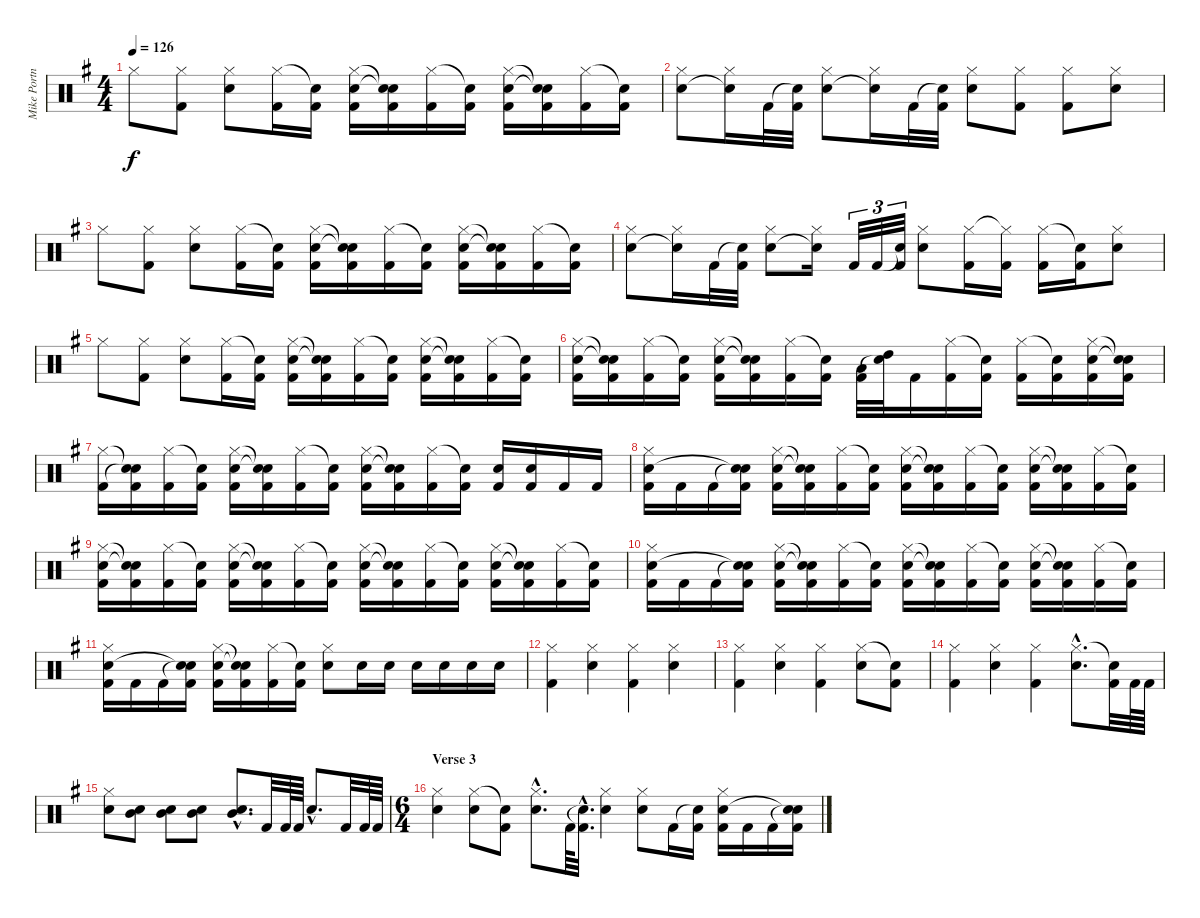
\track ("Mike Portnoy" "Mike Portn") {instrument percussion}
\staff {score}
\articulation defaults
\ts (4 4)
\tempo 126
\clef neutral
\ks g "Hi-Hat (closed)".8{dy f}
("Hi-Hat (closed)" "Kick (hit) 2").8 ("Hi-Hat (closed)" "Snare (hit) 2").8 ("Hi-Hat (closed)" "Kick (hit) 2").16 ("Snare (hit)"{t} "Kick (hit) 2").16 ("Hi-Hat (closed)" "Snare (hit) 2" "Kick (hit) 2").16 ("Snare (hit)"{t} "Snare (hit)"{t} "Kick (hit) 2").16 ("Hi-Hat (closed)" "Kick (hit) 2").16 ("Snare (hit)"{t} "Kick (hit) 2").16 ("Hi-Hat (closed)" "Snare (hit) 2" "Kick (hit) 2").16 ("Snare (hit)"{t} "Snare (hit)"{t} "Kick (hit) 2").16 ("Hi-Hat (closed)" "Kick (hit) 2").16 ("Snare (hit)"{t} "Kick (hit) 2").16 |
("Hi-Hat (closed)" "Snare (hit) 2").8 ("Hi-Hat (closed)" "Snare (hit)"{t}).16 "Kick (hit) 2".32 ("Snare (hit)"{t} "Kick (hit) 2").32 ("Hi-Hat (closed)" "Snare (hit) 2").8 ("Hi-Hat (closed)" "Snare (hit)"{t}).16 "Kick (hit) 2".32 ("Snare (hit)"{t} "Kick (hit) 2").32 ("Hi-Hat (closed)" "Snare (hit) 2").8 ("Hi-Hat (closed)" "Kick (hit) 2").8 ("Hi-Hat (closed)" "Kick (hit) 2").8 ("Hi-Hat (closed)" "Snare (hit) 2").8 |
"Hi-Hat (closed)".8 ("Hi-Hat (closed)" "Kick (hit) 2").8 ("Hi-Hat (closed)" "Snare (hit) 2").8 ("Hi-Hat (closed)" "Kick (hit) 2").16 ("Snare (hit)"{t} "Kick (hit) 2").16 ("Hi-Hat (closed)" "Snare (hit) 2" "Kick (hit) 2").16 ("Snare (hit)"{t} "Snare (hit)"{t} "Kick (hit) 2").16 ("Hi-Hat (closed)" "Kick (hit) 2").16 ("Snare (hit)"{t} "Kick (hit) 2").16 ("Hi-Hat (closed)" "Snare (hit) 2" "Kick (hit) 2").16 ("Snare (hit)"{t} "Snare (hit)"{t} "Kick (hit) 2").16 ("Hi-Hat (closed)" "Kick (hit) 2").16 ("Snare (hit)"{t} "Kick (hit) 2").16 |
("Hi-Hat (closed)" "Snare (hit) 2").8 ("Hi-Hat (closed)" "Snare (hit)"{t}).16 "Kick (hit) 2".32 ("Snare (hit)"{t} "Kick (hit) 2").32 ("Hi-Hat (closed)" "Snare (hit) 2").8 ("Hi-Hat (closed)" "Snare (hit)"{t}).16 "Kick (hit) 2".32{tu (3 2)} "Kick (hit) 2".32{tu (3 2)} ("Snare (hit)"{t} "Kick (hit) 2").32{tu (3 2)} ("Hi-Hat (closed)" "Snare (hit) 2").8 ("Hi-Hat (closed)" "Kick (hit) 2").16 ("Hi-Hat (closed)"{t} "Kick (hit) 2").16 ("Hi-Hat (closed)" "Kick (hit) 2").16 ("Snare (hit)"{t} "Kick (hit) 2").16 ("Hi-Hat (closed)" "Snare (hit) 2").8 |
"Hi-Hat (closed)".8 ("Hi-Hat (closed)" "Kick (hit) 2").8 ("Hi-Hat (closed)" "Snare (hit) 2").8 ("Hi-Hat (closed)" "Kick (hit) 2").16 ("Snare (hit)"{t} "Kick (hit) 2").16 ("Hi-Hat (closed)" "Snare (hit) 2" "Kick (hit) 2").16 ("Snare (hit)"{t} "Snare (hit)"{t} "Kick (hit) 2").16 ("Hi-Hat (closed)" "Kick (hit) 2").16 ("Snare (hit)"{t} "Kick (hit) 2").16 ("Hi-Hat (closed)" "Snare (hit) 2" "Kick (hit) 2").16 ("Snare (hit)"{t} "Snare (hit)"{t} "Kick (hit) 2").16 ("Hi-Hat (closed)" "Kick (hit) 2").16 ("Snare (hit)"{t} "Kick (hit) 2").16 |
("Hi-Hat (closed)" "Snare (hit) 2" "Kick (hit) 2").16 ("Snare (hit)"{t} "Snare (hit)"{t} "Kick (hit) 2").16 ("Hi-Hat (closed)" "Kick (hit) 2").16 ("Snare (hit)"{t} "Kick (hit) 2").16 ("Hi-Hat (closed)" "Snare (hit) 2" "Kick (hit) 2").16 ("Snare (hit)"{t} "Snare (hit)"{t} "Kick (hit) 2").16 ("Hi-Hat (closed)" "Kick (hit) 2").16 ("Snare (hit)"{t} "Kick (hit) 2").16 ("Low Tom (hit)" "Kick (hit) 2").32 ("High Tom (hit)" "Snare (hit)"{t}).32 "Kick (hit) 2".16 ("Hi-Hat (closed)" "Kick (hit) 2").16 ("Snare (hit)"{t} "Kick (hit) 2").16 ("Hi-Hat (closed)" "Kick (hit) 2").16 ("Snare (hit)"{t} "Kick (hit) 2").16 ("Hi-Hat (closed)" "Snare (hit) 2" "Kick (hit) 2").16 ("Snare (hit)"{t} "Snare (hit)"{t} "Kick (hit) 2").16 |
("Hi-Hat (closed)" "Kick (hit) 2").16 ("Snare (hit)"{t} "Snare (hit)"{t} "Kick (hit) 2").16 ("Hi-Hat (closed)" "Kick (hit) 2").16 ("Snare (hit)"{t} "Kick (hit) 2").16 ("Hi-Hat (closed)" "Snare (hit) 2" "Kick (hit) 2").16 ("Snare (hit)"{t} "Snare (hit)"{t} "Kick (hit) 2").16 ("Hi-Hat (closed)" "Kick (hit) 2").16 ("Snare (hit)"{t} "Kick (hit) 2").16 ("Hi-Hat (closed)" "Snare (hit) 2" "Kick (hit) 2").16 ("Snare (hit)"{t} "Snare (hit)"{t} "Kick (hit) 2").16 ("Hi-Hat (closed)" "Kick (hit) 2").16 ("Snare (hit)"{t} "Kick (hit) 2").16 ("Snare (hit) 2" "Kick (hit) 2").16 ("Snare (hit) 2" "Kick (hit) 2").16 "Kick (hit) 2".16 "Kick (hit) 2".16 |
("Hi-Hat (closed)" "Snare (hit) 2" "Kick (hit) 2").16 "Kick (hit) 2".16 "Kick (hit) 2".16 ("Snare (hit)"{t} "Snare (hit)"{t} "Kick (hit) 2").16 ("Hi-Hat (closed)" "Snare (hit) 2" "Kick (hit) 2").16 ("Snare (hit)"{t} "Snare (hit)"{t} "Kick (hit) 2").16 ("Hi-Hat (closed)" "Kick (hit) 2").16 ("Snare (hit)"{t} "Kick (hit) 2").16 ("Hi-Hat (closed)" "Snare (hit) 2" "Kick (hit) 2").16 ("Snare (hit)"{t} "Snare (hit)"{t} "Kick (hit) 2").16 ("Hi-Hat (closed)" "Kick (hit) 2").16 ("Snare (hit)"{t} "Kick (hit) 2").16 ("Hi-Hat (closed)" "Snare (hit) 2" "Kick (hit) 2").16 ("Snare (hit)"{t} "Snare (hit)"{t} "Kick (hit) 2").16 ("Hi-Hat (closed)" "Kick (hit) 2").16 ("Snare (hit)"{t} "Kick (hit) 2").16 |
("Hi-Hat (closed)" "Snare (hit) 2" "Kick (hit) 2").16 ("Snare (hit)"{t} "Snare (hit)"{t} "Kick (hit) 2").16 ("Hi-Hat (closed)" "Kick (hit) 2").16 ("Snare (hit)"{t} "Kick (hit) 2").16 ("Hi-Hat (closed)" "Snare (hit) 2" "Kick (hit) 2").16 ("Snare (hit)"{t} "Snare (hit)"{t} "Kick (hit) 2").16 ("Hi-Hat (closed)" "Kick (hit) 2").16 ("Snare (hit)"{t} "Kick (hit) 2").16 ("Hi-Hat (closed)" "Snare (hit) 2" "Kick (hit) 2").16 ("Snare (hit)"{t} "Snare (hit)"{t} "Kick (hit) 2").16 ("Hi-Hat (closed)" "Kick (hit) 2").16 ("Snare (hit)"{t} "Kick (hit) 2").16 ("Hi-Hat (closed)" "Snare (hit) 2" "Kick (hit) 2").16 ("Snare (hit)"{t} "Snare (hit)"{t} "Kick (hit) 2").16 ("Hi-Hat (closed)" "Kick (hit) 2").16 ("Snare (hit)"{t} "Kick (hit) 2").16 |
("Hi-Hat (closed)" "Snare (hit) 2" "Kick (hit) 2").16 "Kick (hit) 2".16 "Kick (hit) 2".16 ("Snare (hit)"{t} "Snare (hit)"{t} "Kick (hit) 2").16 ("Hi-Hat (closed)" "Snare (hit) 2" "Kick (hit) 2").16 ("Snare (hit)"{t} "Snare (hit)"{t} "Kick (hit) 2").16 ("Hi-Hat (closed)" "Kick (hit) 2").16 ("Snare (hit)"{t} "Kick (hit) 2").16 ("Hi-Hat (closed)" "Snare (hit) 2" "Kick (hit) 2").16 ("Snare (hit)"{t} "Snare (hit)"{t} "Kick (hit) 2").16 ("Hi-Hat (closed)" "Kick (hit) 2").16 ("Snare (hit)"{t} "Kick (hit) 2").16 ("Hi-Hat (closed)" "Snare (hit) 2" "Kick (hit) 2").16 ("Snare (hit)"{t} "Snare (hit)"{t} "Kick (hit) 2").16 ("Hi-Hat (closed)" "Kick (hit) 2").16 ("Snare (hit)"{t} "Kick (hit) 2").16 |
("Hi-Hat (closed)" "Snare (hit) 2" "Kick (hit) 2").16 "Kick (hit) 2".16 "Kick (hit) 2".16 ("Snare (hit)"{t} "Snare (hit)"{t} "Kick (hit) 2").16 ("Hi-Hat (closed)" "Snare (hit) 2" "Kick (hit) 2").16 ("Snare (hit)"{t} "Snare (hit)"{t} "Kick (hit) 2").16 ("Hi-Hat (closed)" "Kick (hit) 2").16 ("Snare (hit)"{t} "Kick (hit) 2").16 ("Hi-Hat (closed)" "Snare (hit) 2").8 "Snare (hit) 2".16 "Snare (hit) 2".16 "Snare (hit) 2".16 "Snare (hit) 2".16 "Snare (hit) 2".16 "Snare (hit) 2".16 |
("Hi-Hat (closed)" "Kick (hit) 2").4 ("Hi-Hat (closed)" "Snare (hit) 2").4 ("Hi-Hat (closed)" "Kick (hit) 2").4 ("Hi-Hat (closed)" "Snare (hit) 2").4 |
("Hi-Hat (closed)" "Kick (hit) 2").4 ("Hi-Hat (closed)" "Snare (hit) 2").4 ("Hi-Hat (closed)" "Kick (hit) 2").4 ("Hi-Hat (closed)" "Snare (hit) 2").8 ("Snare (hit)"{t} "Kick (hit) 2").8 |
("Hi-Hat (closed)" "Kick (hit) 2").4 ("Hi-Hat (closed)" "Snare (hit) 2").4 ("Hi-Hat (closed)" "Kick (hit) 2").4 ("Hi-Hat (closed)"{hac} "Snare (hit) 2"{hac}).8{d} ("Snare (hit)"{t} "Kick (hit) 2").32 "Kick (hit) 2".64 "Kick (hit) 2".64 |
("Hi-Hat (closed)" "Snare (hit) 2").8 ("Mid Tom (hit)" "Snare (hit) 2").8 ("Mid Tom (hit)" "Snare (hit) 2").8 ("Mid Tom (hit)" "Snare (hit) 2").8 ("Mid Tom (hit)"{hac} "Snare (hit) 2"{hac}).8{d} "Kick (hit) 2".32 "Kick (hit) 2".64 "Kick (hit) 2".64 "Snare (hit) 2"{hac}.8{d} "Kick (hit) 2".32 "Kick (hit) 2".64 "Kick (hit) 2".64 |
\ts (6 4)
\section ("" "Verse 3")
("Hi-Hat (closed)" "Snare (hit) 2").4 ("Hi-Hat (closed)" "Snare (hit) 2").8 ("Snare (hit)"{t} "Kick (hit) 2").8 ("Hi-Hat (closed)"{hac} "Snare (hit) 2"{hac}).8{d} "Kick (hit) 2".64 ("Snare (hit)"{hac t} "Kick (hit) 2"{hac}).32{d} ("Hi-Hat (closed)" "Snare (hit) 2").4 ("Hi-Hat (closed)" "Snare (hit) 2").8 "Kick (hit) 2".16 ("Snare (hit)"{t} "Kick (hit) 2").16 ("Hi-Hat (closed)" "Snare (hit) 2" "Kick (hit) 2").16 "Kick (hit) 2".16 "Kick (hit) 2".16 ("Snare (hit)"{t} "Snare (hit)"{t} "Kick (hit) 2").16
